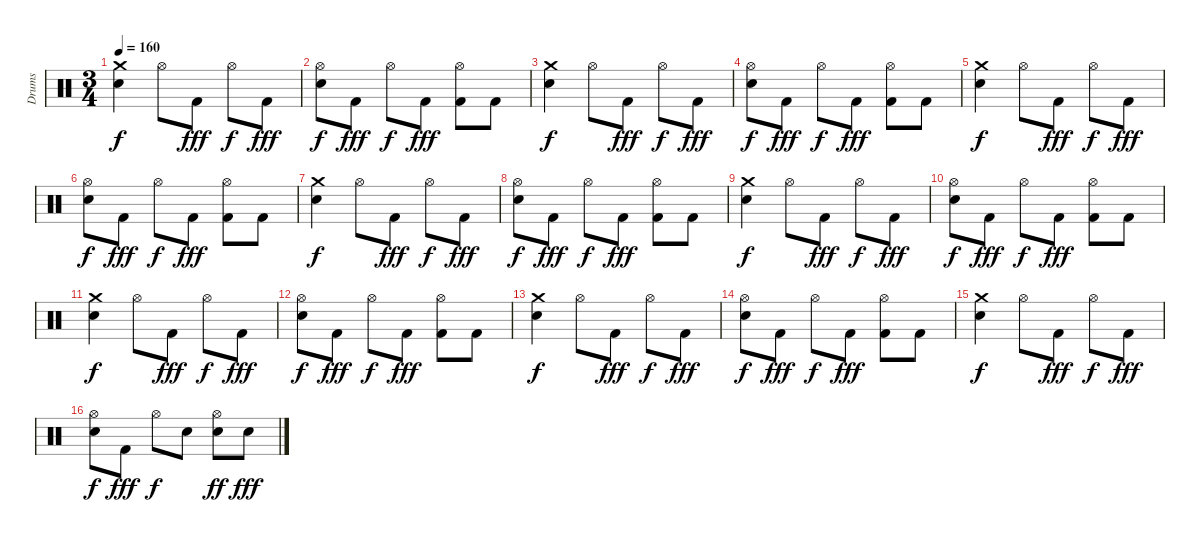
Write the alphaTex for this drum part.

\track ("Drums" "Drums") {instrument percussion}
\staff {score}
\articulation defaults
\ts (3 4)
\tempo 160
\clef neutral
\ks c
("Crash medium (hit)" "Electric Snare (hit)").4{dy f} "Hi-Hat (open)".8 "Kick (hit) 2".8{dy fff} "Hi-Hat (open)".8{dy f} "Kick (hit) 2".8{dy fff} |
("Hi-Hat (open)" "Electric Snare (hit)").8{dy f} "Kick (hit) 2".8{dy fff} "Hi-Hat (open)".8{dy f} "Kick (hit) 2".8{dy fff} ("Hi-Hat (open)" "Kick (hit) 2").8 "Kick (hit) 2".8 |
("Crash medium (hit)" "Electric Snare (hit)").4{dy f} "Hi-Hat (open)".8 "Kick (hit) 2".8{dy fff} "Hi-Hat (open)".8{dy f} "Kick (hit) 2".8{dy fff} |
("Hi-Hat (open)" "Electric Snare (hit)").8{dy f} "Kick (hit) 2".8{dy fff} "Hi-Hat (open)".8{dy f} "Kick (hit) 2".8{dy fff} ("Hi-Hat (open)" "Kick (hit) 2").8 "Kick (hit) 2".8 |
("Crash medium (hit)" "Electric Snare (hit)").4{dy f} "Hi-Hat (open)".8 "Kick (hit) 2".8{dy fff} "Hi-Hat (open)".8{dy f} "Kick (hit) 2".8{dy fff} |
("Hi-Hat (open)" "Electric Snare (hit)").8{dy f} "Kick (hit) 2".8{dy fff} "Hi-Hat (open)".8{dy f} "Kick (hit) 2".8{dy fff} ("Hi-Hat (open)" "Kick (hit) 2").8 "Kick (hit) 2".8 |
("Crash medium (hit)" "Electric Snare (hit)").4{dy f} "Hi-Hat (open)".8 "Kick (hit) 2".8{dy fff} "Hi-Hat (open)".8{dy f} "Kick (hit) 2".8{dy fff} |
("Hi-Hat (open)" "Electric Snare (hit)").8{dy f} "Kick (hit) 2".8{dy fff} "Hi-Hat (open)".8{dy f} "Kick (hit) 2".8{dy fff} ("Hi-Hat (open)" "Kick (hit) 2").8 "Kick (hit) 2".8 |
("Crash medium (hit)" "Electric Snare (hit)").4{dy f} "Hi-Hat (open)".8 "Kick (hit) 2".8{dy fff} "Hi-Hat (open)".8{dy f} "Kick (hit) 2".8{dy fff} |
("Hi-Hat (open)" "Electric Snare (hit)").8{dy f} "Kick (hit) 2".8{dy fff} "Hi-Hat (open)".8{dy f} "Kick (hit) 2".8{dy fff} ("Hi-Hat (open)" "Kick (hit) 2").8 "Kick (hit) 2".8 |
("Crash medium (hit)" "Electric Snare (hit)").4{dy f} "Hi-Hat (open)".8 "Kick (hit) 2".8{dy fff} "Hi-Hat (open)".8{dy f} "Kick (hit) 2".8{dy fff} |
("Hi-Hat (open)" "Electric Snare (hit)").8{dy f} "Kick (hit) 2".8{dy fff} "Hi-Hat (open)".8{dy f} "Kick (hit) 2".8{dy fff} ("Hi-Hat (open)" "Kick (hit) 2").8 "Kick (hit) 2".8 |
("Crash medium (hit)" "Electric Snare (hit)").4{dy f} "Hi-Hat (open)".8 "Kick (hit) 2".8{dy fff} "Hi-Hat (open)".8{dy f} "Kick (hit) 2".8{dy fff} |
("Hi-Hat (open)" "Electric Snare (hit)").8{dy f} "Kick (hit) 2".8{dy fff} "Hi-Hat (open)".8{dy f} "Kick (hit) 2".8{dy fff} ("Hi-Hat (open)" "Kick (hit) 2").8 "Kick (hit) 2".8 |
("Crash medium (hit)" "Electric Snare (hit)").4{dy f} "Hi-Hat (open)".8 "Kick (hit) 2".8{dy fff} "Hi-Hat (open)".8{dy f} "Kick (hit) 2".8{dy fff} |
("Hi-Hat (open)" "Electric Snare (hit)").8{dy f} "Kick (hit) 2".8{dy fff} "Hi-Hat (open)".8{dy f} "Electric Snare (hit)".8 ("Hi-Hat (open)" "Electric Snare (hit)").8{dy ff} "Electric Snare (hit)".8{dy fff}
